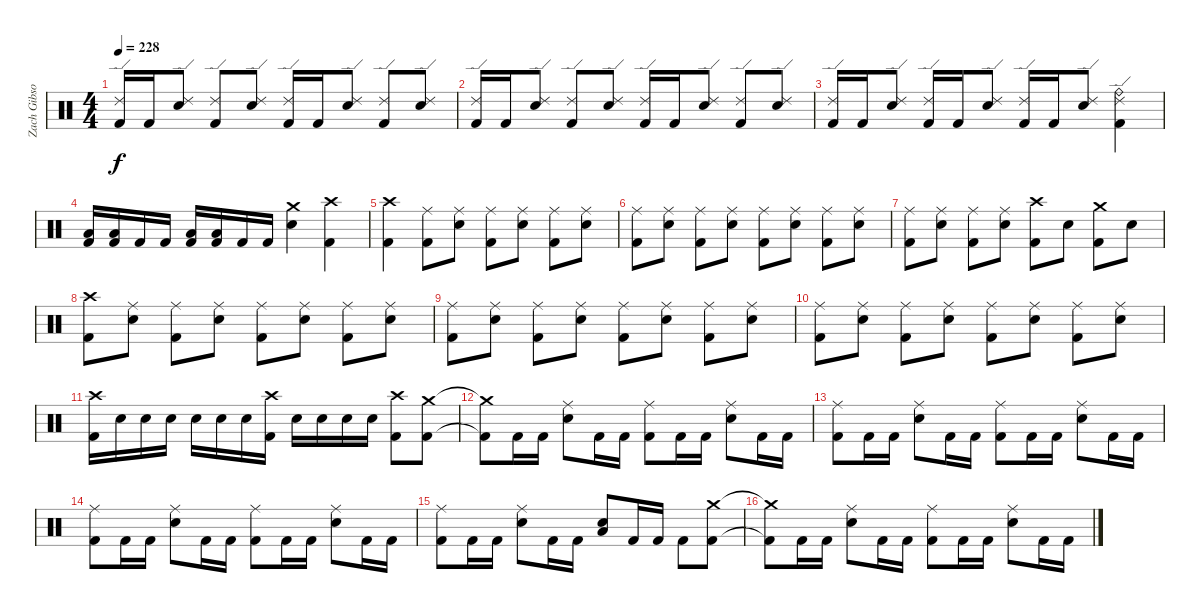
\track ("Zach Gibson (Ex-Drums)" "Zach Gibso") {instrument percussion}
\staff {score}
\articulation defaults
\ts (4 4)
\tempo 228
\clef neutral
\ks c
("Ride (edge) 2" "Kick (hit) 2").16{dy f} "Kick (hit) 2".16 ("Ride (edge) 2" "Snare (hit) 2").8 ("Ride (edge) 2" "Kick (hit) 2").8 ("Ride (edge) 2" "Snare (hit) 2").8 ("Ride (edge) 2" "Kick (hit) 2").16 "Kick (hit) 2".16 ("Ride (edge) 2" "Snare (hit) 2").8 ("Ride (edge) 2" "Kick (hit) 2").8 ("Ride (edge) 2" "Snare (hit) 2").8 |
("Ride (edge) 2" "Kick (hit) 2").16 "Kick (hit) 2".16 ("Ride (edge) 2" "Snare (hit) 2").8 ("Ride (edge) 2" "Kick (hit) 2").8 ("Ride (edge) 2" "Snare (hit) 2").8 ("Ride (edge) 2" "Kick (hit) 2").16 "Kick (hit) 2".16 ("Ride (edge) 2" "Snare (hit) 2").8 ("Ride (edge) 2" "Kick (hit) 2").8 ("Ride (edge) 2" "Snare (hit) 2").8 |
("Ride (edge) 2" "Kick (hit) 2").16 "Kick (hit) 2".16 ("Ride (edge) 2" "Snare (hit) 2").8 ("Ride (edge) 2" "Kick (hit) 2").16 "Kick (hit) 2".16 ("Ride (edge) 2" "Snare (hit) 2").8 ("Ride (edge) 2" "Kick (hit) 2").16 "Kick (hit) 2".16 ("Ride (edge) 2" "Snare (hit) 2").8 ("Ride (bell)" "Ride (edge) 2" "Kick (hit) 2").4 |
("Low Floor Tom (hit)" "Kick (hit) 2").16 ("Low Floor Tom (hit)" "Kick (hit) 2").16 "Kick (hit) 2".16 "Kick (hit) 2".16 ("Low Floor Tom (hit)" "Kick (hit) 2").16 ("Low Floor Tom (hit)" "Kick (hit) 2").16 "Kick (hit) 2".16 "Kick (hit) 2".16 ("Crash medium (hit)" "Snare (hit) 2").4 ("Crash high (hit)" "Kick (hit) 2").4 |
("Crash high (hit)" "Kick (hit) 2").4 ("Ride (middle)" "Kick (hit) 2").8 ("Ride (middle)" "Snare (hit) 2").8 ("Ride (middle)" "Kick (hit) 2").8 ("Ride (middle)" "Snare (hit) 2").8 ("Ride (middle)" "Kick (hit) 2").8 ("Ride (middle)" "Snare (hit) 2").8 |
("Ride (middle)" "Kick (hit) 2").8 ("Ride (middle)" "Snare (hit) 2").8 ("Ride (middle)" "Kick (hit) 2").8 ("Ride (middle)" "Snare (hit) 2").8 ("Ride (middle)" "Kick (hit) 2").8 ("Ride (middle)" "Snare (hit) 2").8 ("Ride (middle)" "Kick (hit) 2").8 ("Ride (middle)" "Snare (hit) 2").8 |
("Ride (middle)" "Kick (hit) 2").8 ("Ride (middle)" "Snare (hit) 2").8 ("Ride (middle)" "Kick (hit) 2").8 ("Ride (middle)" "Snare (hit) 2").8 ("Crash high (hit)" "Kick (hit) 2").8 "Snare (hit) 2".8 ("Crash medium (hit)" "Kick (hit) 2").8 "Snare (hit) 2".8 |
("Crash high (hit)" "Kick (hit) 2").8 ("Ride (middle)" "Snare (hit) 2").8 ("Ride (middle)" "Kick (hit) 2").8 ("Ride (middle)" "Snare (hit) 2").8 ("Ride (middle)" "Kick (hit) 2").8 ("Ride (middle)" "Snare (hit) 2").8 ("Ride (middle)" "Kick (hit) 2").8 ("Ride (middle)" "Snare (hit) 2").8 |
("Ride (middle)" "Kick (hit) 2").8 ("Ride (middle)" "Snare (hit) 2").8 ("Ride (middle)" "Kick (hit) 2").8 ("Ride (middle)" "Snare (hit) 2").8 ("Ride (middle)" "Kick (hit) 2").8 ("Ride (middle)" "Snare (hit) 2").8 ("Ride (middle)" "Kick (hit) 2").8 ("Ride (middle)" "Snare (hit) 2").8 |
("Ride (middle)" "Kick (hit) 2").8 ("Ride (middle)" "Snare (hit) 2").8 ("Ride (middle)" "Kick (hit) 2").8 ("Ride (middle)" "Snare (hit) 2").8 ("Ride (middle)" "Kick (hit) 2").8 ("Ride (middle)" "Snare (hit) 2").8 ("Ride (middle)" "Kick (hit) 2").8 ("Ride (middle)" "Snare (hit) 2").8 |
("Crash high (hit)" "Kick (hit) 2").16 "Snare (hit) 2".16 "Snare (hit) 2".16 "Snare (hit) 2".16 "Snare (hit) 2".16 "Snare (hit) 2".16 "Snare (hit) 2".16 ("Crash high (hit)" "Kick (hit) 2").16 "Snare (hit) 2".16 "Snare (hit) 2".16 "Snare (hit) 2".16 "Snare (hit) 2".16 ("Crash high (hit)" "Kick (hit) 2").8 ("Crash medium (hit)" "Kick (hit) 2").8 |
("Crash medium (hit)"{t} "Kick (hit) 2"{t}).8 "Kick (hit) 2".16 "Kick (hit) 2".16 ("Ride (middle)" "Snare (hit) 2").8 "Kick (hit) 2".16 "Kick (hit) 2".16 ("Ride (middle)" "Kick (hit) 2").8 "Kick (hit) 2".16 "Kick (hit) 2".16 ("Ride (middle)" "Snare (hit) 2").8 "Kick (hit) 2".16 "Kick (hit) 2".16 |
("Ride (middle)" "Kick (hit) 2").8 "Kick (hit) 2".16 "Kick (hit) 2".16 ("Ride (middle)" "Snare (hit) 2").8 "Kick (hit) 2".16 "Kick (hit) 2".16 ("Kick (hit) 2" "Ride (middle)").8 "Kick (hit) 2".16 "Kick (hit) 2".16 ("Ride (middle)" "Snare (hit) 2").8 "Kick (hit) 2".16 "Kick (hit) 2".16 |
("Ride (middle)" "Kick (hit) 2").8 "Kick (hit) 2".16 "Kick (hit) 2".16 ("Ride (middle)" "Snare (hit) 2").8 "Kick (hit) 2".16 "Kick (hit) 2".16 ("Kick (hit) 2" "Ride (middle)").8 "Kick (hit) 2".16 "Kick (hit) 2".16 ("Ride (middle)" "Snare (hit) 2").8 "Kick (hit) 2".16 "Kick (hit) 2".16 |
("Ride (middle)" "Kick (hit) 2").8 "Kick (hit) 2".16 "Kick (hit) 2".16 ("Ride (middle)" "Snare (hit) 2").8 "Kick (hit) 2".16 "Kick (hit) 2".16 ("Low Floor Tom (hit)" "Snare (hit) 2").8 "Kick (hit) 2".16 "Kick (hit) 2".16 "Kick (hit) 2".8 ("Crash medium (hit)" "Kick (hit) 2").8 |
("Crash medium (hit)"{t} "Kick (hit) 2"{t}).8 "Kick (hit) 2".16 "Kick (hit) 2".16 ("Ride (middle)" "Snare (hit) 2").8 "Kick (hit) 2".16 "Kick (hit) 2".16 ("Ride (middle)" "Kick (hit) 2").8 "Kick (hit) 2".16 "Kick (hit) 2".16 ("Ride (middle)" "Snare (hit) 2").8 "Kick (hit) 2".16 "Kick (hit) 2".16
